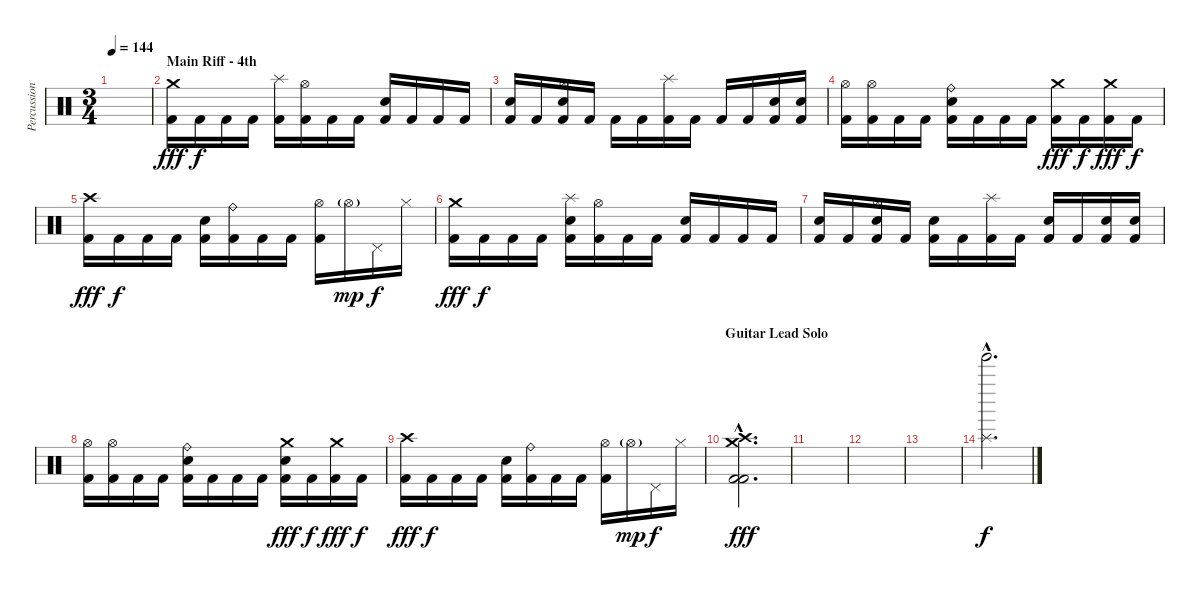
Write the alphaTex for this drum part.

\track ("Percussion" "Percussion") {instrument percussion}
\staff {score}
\articulation defaults
\ts (3 4)
\tempo 144
\clef neutral
\ks c
|
\section ("" "Main Riff - 4th")
("Crash medium (hit)" "Kick (hit) 2").16{dy fff} "Kick (hit) 2".16{dy f} "Kick (hit) 2".16 "Kick (hit) 2".16 ("Splash (hit)" "Kick (hit) 2").16 ("Hi-Hat (open)" "Kick (hit) 2").16 "Kick (hit) 2".16 "Kick (hit) 2".16 ("Electric Snare (hit)" "Kick (hit) 2").16 "Kick (hit) 2".16 "Kick (hit) 2".16 "Kick (hit) 2".16 |
("Electric Snare (hit)" "Kick (hit) 2").16 "Kick (hit) 2".16 ("Hi-Hat (open)" "Electric Snare (hit)" "Kick (hit) 2").16 "Kick (hit) 2".16 "Kick (hit) 2".16 "Kick (hit) 2".16 ("Splash (hit)" "Kick (hit) 2").16 "Kick (hit) 2".16 "Kick (hit) 2".16 "Kick (hit) 2".16 ("Electric Snare (hit)" "Kick (hit) 2").16 ("Electric Snare (hit)" "Kick (hit) 2").16 |
("Hi-Hat (open)" "Kick (hit) 2").16 ("Hi-Hat (open)" "Kick (hit) 2").16 "Kick (hit) 2".16 "Kick (hit) 2".16 ("Ride (bell)" "Electric Snare (hit)" "Kick (hit) 2").16 "Kick (hit) 2".16 "Kick (hit) 2".16 "Kick (hit) 2".16 ("Crash medium (hit)" "Kick (hit) 2").16{dy fff} "Kick (hit) 2".16{dy f} ("Crash medium (hit)" "Kick (hit) 2").16{dy fff} "Kick (hit) 2".16{dy f} |
("Crash high (hit)" "Kick (hit) 2").16{dy fff} "Kick (hit) 2".16{dy f} "Kick (hit) 2".16 "Kick (hit) 2".16 ("Electric Snare (hit)" "Kick (hit) 2").16 ("Ride (bell)" "Kick (hit) 2").16 "Kick (hit) 2".16 "Kick (hit) 2".16 ("Hi-Hat (open)" "Kick (hit) 2").16 "Hi-Hat (open)"{g}.16{dy mp} "Pedal Hi-Hat (hit)".16{dy f} "Hi-Hat (closed)".16 |
("Crash medium (hit)" "Kick (hit) 2").16{dy fff} "Kick (hit) 2".16{dy f} "Kick (hit) 2".16 "Kick (hit) 2".16 ("Splash (hit)" "Electric Snare (hit)" "Kick (hit) 2").16 ("Hi-Hat (open)" "Kick (hit) 2").16 "Kick (hit) 2".16 "Kick (hit) 2".16 ("Electric Snare (hit)" "Kick (hit) 2").16 "Kick (hit) 2".16 "Kick (hit) 2".16 "Kick (hit) 2".16 |
("Electric Snare (hit)" "Kick (hit) 2").16 "Kick (hit) 2".16 ("Hi-Hat (open)" "Electric Snare (hit)" "Kick (hit) 2").16 "Kick (hit) 2".16 ("Electric Snare (hit)" "Kick (hit) 2").16 "Kick (hit) 2".16 ("Splash (hit)" "Kick (hit) 2").16 "Kick (hit) 2".16 ("Electric Snare (hit)" "Kick (hit) 2").16 "Kick (hit) 2".16 ("Electric Snare (hit)" "Kick (hit) 2").16 ("Electric Snare (hit)" "Kick (hit) 2").16 |
("Hi-Hat (open)" "Kick (hit) 2").16 ("Hi-Hat (open)" "Kick (hit) 2").16 "Kick (hit) 2".16 "Kick (hit) 2".16 ("Ride (bell)" "Electric Snare (hit)" "Kick (hit) 2").16 "Kick (hit) 2".16 "Kick (hit) 2".16 "Kick (hit) 2".16 ("Crash medium (hit)" "Electric Snare (hit)" "Kick (hit) 2").16{dy fff} "Kick (hit) 2".16{dy f} ("Crash medium (hit)" "Kick (hit) 2").16{dy fff} "Kick (hit) 2".16{dy f} |
("Crash high (hit)" "Kick (hit) 2").16{dy fff} "Kick (hit) 2".16{dy f} "Kick (hit) 2".16 "Kick (hit) 2".16 ("Electric Snare (hit)" "Kick (hit) 2").16 ("Ride (bell)" "Kick (hit) 2").16 "Kick (hit) 2".16 "Kick (hit) 2".16 ("Hi-Hat (open)" "Kick (hit) 2").16 "Hi-Hat (open)"{g}.16{dy mp} "Pedal Hi-Hat (hit)".16{dy f} "Hi-Hat (closed)".16 |
\section ("" "Guitar Lead Solo")
("Crash high (hit)"{hac} "Crash medium (hit)"{hac} "Kick (hit) 2"{hac} "Kick (hit) 2"{hac}).2{d dy fff} |
|
|
|
("Splash (hit)"{hac} "Tinkle Bell (hit)"{hac}).2{d dy f}
